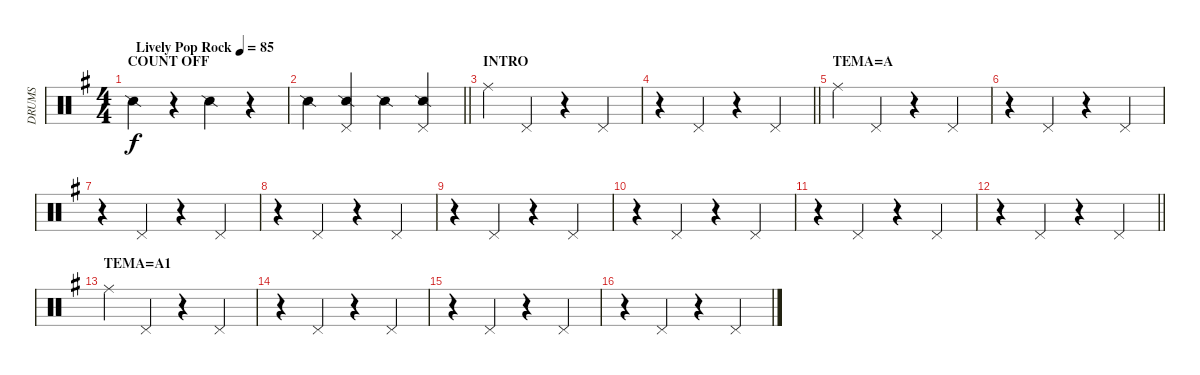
\track ("DRUMS" "DRUMS") {instrument percussion}
\staff {score}
\articulation defaults
\ts (4 4)
\section ("" "COUNT OFF")
\tempo (85 "Lively Pop Rock")
\clef neutral
\ks g "Snare (side stick) 2".4{dy f}
r.4 "Snare (side stick) 2".4 r.4 |
\barLineRight lightlight "Snare (side stick) 2".4
("Snare (side stick) 2" "Pedal Hi-Hat (hit)").4 "Snare (side stick) 2".4 ("Snare (side stick) 2" "Pedal Hi-Hat (hit)").4 |
\section ("" "INTRO")
"Ride (middle)".4 "Pedal Hi-Hat (hit)".4 r.4 "Pedal Hi-Hat (hit)".4 |
\barLineRight lightlight
r.4 "Pedal Hi-Hat (hit)".4 r.4 "Pedal Hi-Hat (hit)".4 |
\section ("" "TEMA=A")
"Ride (middle)".4 "Pedal Hi-Hat (hit)".4 r.4 "Pedal Hi-Hat (hit)".4 |
r.4 "Pedal Hi-Hat (hit)".4 r.4 "Pedal Hi-Hat (hit)".4 |
r.4 "Pedal Hi-Hat (hit)".4 r.4 "Pedal Hi-Hat (hit)".4 |
r.4 "Pedal Hi-Hat (hit)".4 r.4 "Pedal Hi-Hat (hit)".4 |
r.4 "Pedal Hi-Hat (hit)".4 r.4 "Pedal Hi-Hat (hit)".4 |
r.4 "Pedal Hi-Hat (hit)".4 r.4 "Pedal Hi-Hat (hit)".4 |
r.4 "Pedal Hi-Hat (hit)".4 r.4 "Pedal Hi-Hat (hit)".4 |
\barLineRight lightlight
r.4 "Pedal Hi-Hat (hit)".4 r.4 "Pedal Hi-Hat (hit)".4 |
\section ("" "TEMA=A1")
"Ride (middle)".4 "Pedal Hi-Hat (hit)".4 r.4 "Pedal Hi-Hat (hit)".4 |
r.4 "Pedal Hi-Hat (hit)".4 r.4 "Pedal Hi-Hat (hit)".4 |
r.4 "Pedal Hi-Hat (hit)".4 r.4 "Pedal Hi-Hat (hit)".4 |
r.4 "Pedal Hi-Hat (hit)".4 r.4 "Pedal Hi-Hat (hit)".4
